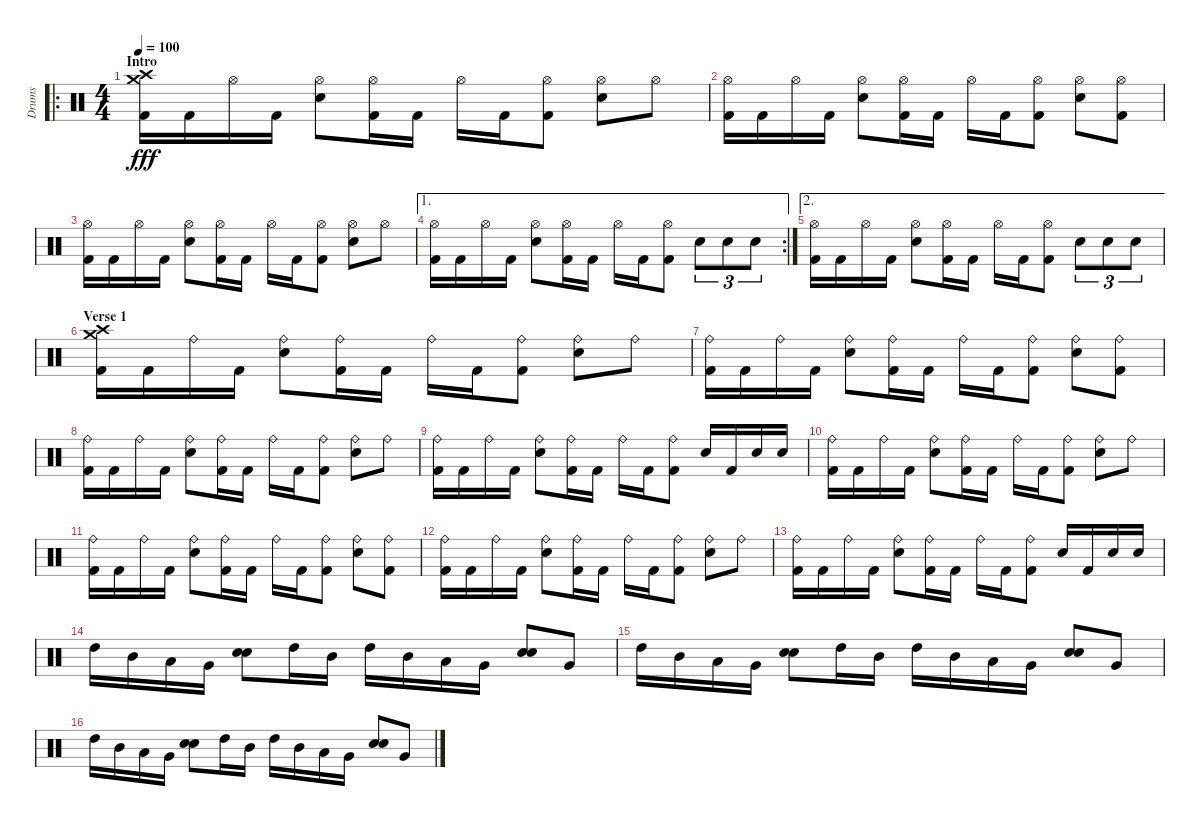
\track ("Drums" "Drums") {instrument percussion}
\staff {score}
\articulation defaults
\ro
\ts (4 4)
\section ("" "Intro")
\tempo 100
\clef neutral
\ks c
("Crash high (hit)" "Crash medium (hit)" "Kick (hit) 2").16{dy fff} "Kick (hit) 2".16 "Hi-Hat (open)".16 "Kick (hit) 2".16 ("Hi-Hat (open)" "Electric Snare (hit)").8 ("Hi-Hat (open)" "Kick (hit) 2").16 "Kick (hit) 2".16 "Hi-Hat (open)".16 "Kick (hit) 2".16 ("Hi-Hat (open)" "Kick (hit) 2").8 ("Hi-Hat (open)" "Electric Snare (hit)").8 "Hi-Hat (open)".8 |
("Hi-Hat (open)" "Kick (hit) 2").16 "Kick (hit) 2".16 "Hi-Hat (open)".16 "Kick (hit) 2".16 ("Hi-Hat (open)" "Electric Snare (hit)").8 ("Hi-Hat (open)" "Kick (hit) 2").16 "Kick (hit) 2".16 "Hi-Hat (open)".16 "Kick (hit) 2".16 ("Hi-Hat (open)" "Kick (hit) 2").8 ("Hi-Hat (open)" "Electric Snare (hit)").8 ("Hi-Hat (open)" "Kick (hit) 2").8 |
("Hi-Hat (open)" "Kick (hit) 2").16 "Kick (hit) 2".16 "Hi-Hat (open)".16 "Kick (hit) 2".16 ("Hi-Hat (open)" "Electric Snare (hit)").8 ("Hi-Hat (open)" "Kick (hit) 2").16 "Kick (hit) 2".16 "Hi-Hat (open)".16 "Kick (hit) 2".16 ("Hi-Hat (open)" "Kick (hit) 2").8 ("Hi-Hat (open)" "Electric Snare (hit)").8 "Hi-Hat (open)".8 |
\ae 1
\rc 2
("Hi-Hat (open)" "Kick (hit) 2").16 "Kick (hit) 2".16 "Hi-Hat (open)".16 "Kick (hit) 2".16 ("Hi-Hat (open)" "Electric Snare (hit)").8 ("Hi-Hat (open)" "Kick (hit) 2").16 "Kick (hit) 2".16 "Hi-Hat (open)".16 "Kick (hit) 2".16 ("Hi-Hat (open)" "Kick (hit) 2").8 "Electric Snare (hit)".8{tu (3 2)} "Electric Snare (hit)".8{tu (3 2)} "Electric Snare (hit)".8{tu (3 2)} |
\ae 2
("Hi-Hat (open)" "Kick (hit) 2").16 "Kick (hit) 2".16 "Hi-Hat (open)".16 "Kick (hit) 2".16 ("Hi-Hat (open)" "Electric Snare (hit)").8 ("Hi-Hat (open)" "Kick (hit) 2").16 "Kick (hit) 2".16 "Hi-Hat (open)".16 "Kick (hit) 2".16 ("Hi-Hat (open)" "Kick (hit) 2").8 "Electric Snare (hit)".8{tu (3 2)} "Electric Snare (hit)".8{tu (3 2)} "Electric Snare (hit)".8{tu (3 2)} |
\section ("" "Verse 1")
("Crash high (hit)" "Crash medium (hit)" "Kick (hit) 2").16 "Kick (hit) 2".16 "Ride (bell)".16 "Kick (hit) 2".16 ("Ride (bell)" "Electric Snare (hit)").8 ("Ride (bell)" "Kick (hit) 2").16 "Kick (hit) 2".16 "Ride (bell)".16 "Kick (hit) 2".16 ("Ride (bell)" "Kick (hit) 2").8 ("Ride (bell)" "Electric Snare (hit)").8 "Ride (bell)".8 |
("Ride (bell)" "Kick (hit) 2").16 "Kick (hit) 2".16 "Ride (bell)".16 "Kick (hit) 2".16 ("Ride (bell)" "Electric Snare (hit)").8 ("Ride (bell)" "Kick (hit) 2").16 "Kick (hit) 2".16 "Ride (bell)".16 "Kick (hit) 2".16 ("Ride (bell)" "Kick (hit) 2").8 ("Ride (bell)" "Electric Snare (hit)").8 ("Ride (bell)" "Kick (hit) 2").8 |
("Ride (bell)" "Kick (hit) 2").16 "Kick (hit) 2".16 "Ride (bell)".16 "Kick (hit) 2".16 ("Ride (bell)" "Electric Snare (hit)").8 ("Ride (bell)" "Kick (hit) 2").16 "Kick (hit) 2".16 "Ride (bell)".16 "Kick (hit) 2".16 ("Ride (bell)" "Kick (hit) 2").8 ("Ride (bell)" "Electric Snare (hit)").8 "Ride (bell)".8 |
("Ride (bell)" "Kick (hit) 2").16 "Kick (hit) 2".16 "Ride (bell)".16 "Kick (hit) 2".16 ("Ride (bell)" "Electric Snare (hit)").8 ("Ride (bell)" "Kick (hit) 2").16 "Kick (hit) 2".16 "Ride (bell)".16 "Kick (hit) 2".16 ("Ride (bell)" "Kick (hit) 2").8 "Electric Snare (hit)".16 "Kick (hit) 2".16 "Electric Snare (hit)".16 "Electric Snare (hit)".16 |
("Ride (bell)" "Kick (hit) 2").16 "Kick (hit) 2".16 "Ride (bell)".16 "Kick (hit) 2".16 ("Ride (bell)" "Electric Snare (hit)").8 ("Ride (bell)" "Kick (hit) 2").16 "Kick (hit) 2".16 "Ride (bell)".16 "Kick (hit) 2".16 ("Ride (bell)" "Kick (hit) 2").8 ("Ride (bell)" "Electric Snare (hit)").8 "Ride (bell)".8 |
("Ride (bell)" "Kick (hit) 2").16 "Kick (hit) 2".16 "Ride (bell)".16 "Kick (hit) 2".16 ("Ride (bell)" "Electric Snare (hit)").8 ("Ride (bell)" "Kick (hit) 2").16 "Kick (hit) 2".16 "Ride (bell)".16 "Kick (hit) 2".16 ("Ride (bell)" "Kick (hit) 2").8 ("Ride (bell)" "Electric Snare (hit)").8 ("Ride (bell)" "Kick (hit) 2").8 |
("Ride (bell)" "Kick (hit) 2").16 "Kick (hit) 2".16 "Ride (bell)".16 "Kick (hit) 2".16 ("Ride (bell)" "Electric Snare (hit)").8 ("Ride (bell)" "Kick (hit) 2").16 "Kick (hit) 2".16 "Ride (bell)".16 "Kick (hit) 2".16 ("Ride (bell)" "Kick (hit) 2").8 ("Ride (bell)" "Electric Snare (hit)").8 "Ride (bell)".8 |
("Ride (bell)" "Kick (hit) 2").16 "Kick (hit) 2".16 "Ride (bell)".16 "Kick (hit) 2".16 ("Ride (bell)" "Electric Snare (hit)").8 ("Ride (bell)" "Kick (hit) 2").16 "Kick (hit) 2".16 "Ride (bell)".16 "Kick (hit) 2".16 ("Ride (bell)" "Kick (hit) 2").8 "Electric Snare (hit)".16 "Kick (hit) 2".16 "Electric Snare (hit)".16 "Electric Snare (hit)".16 |
"High Tom (hit)".16 "Mid Tom (hit)".16 "Low Tom (hit)".16 "Very Low Tom (hit)".16 ("Electric Snare (hit)" "Electric Snare (hit)").8 "High Tom (hit)".16 "Mid Tom (hit)".16 "High Tom (hit)".16 "Mid Tom (hit)".16 "Low Tom (hit)".16 "Very Low Tom (hit)".16 ("Electric Snare (hit)" "Electric Snare (hit)").8 "Very Low Tom (hit)".8 |
"High Tom (hit)".16 "Mid Tom (hit)".16 "Low Tom (hit)".16 "Very Low Tom (hit)".16 ("Electric Snare (hit)" "Electric Snare (hit)").8 "High Tom (hit)".16 "Mid Tom (hit)".16 "High Tom (hit)".16 "Mid Tom (hit)".16 "Low Tom (hit)".16 "Very Low Tom (hit)".16 ("Electric Snare (hit)" "Electric Snare (hit)").8 "Very Low Tom (hit)".8 |
"High Tom (hit)".16 "Mid Tom (hit)".16 "Low Tom (hit)".16 "Very Low Tom (hit)".16 ("Electric Snare (hit)" "Electric Snare (hit)").8 "High Tom (hit)".16 "Mid Tom (hit)".16 "High Tom (hit)".16 "Mid Tom (hit)".16 "Low Tom (hit)".16 "Very Low Tom (hit)".16 ("Electric Snare (hit)" "Electric Snare (hit)").8 "Very Low Tom (hit)".8
